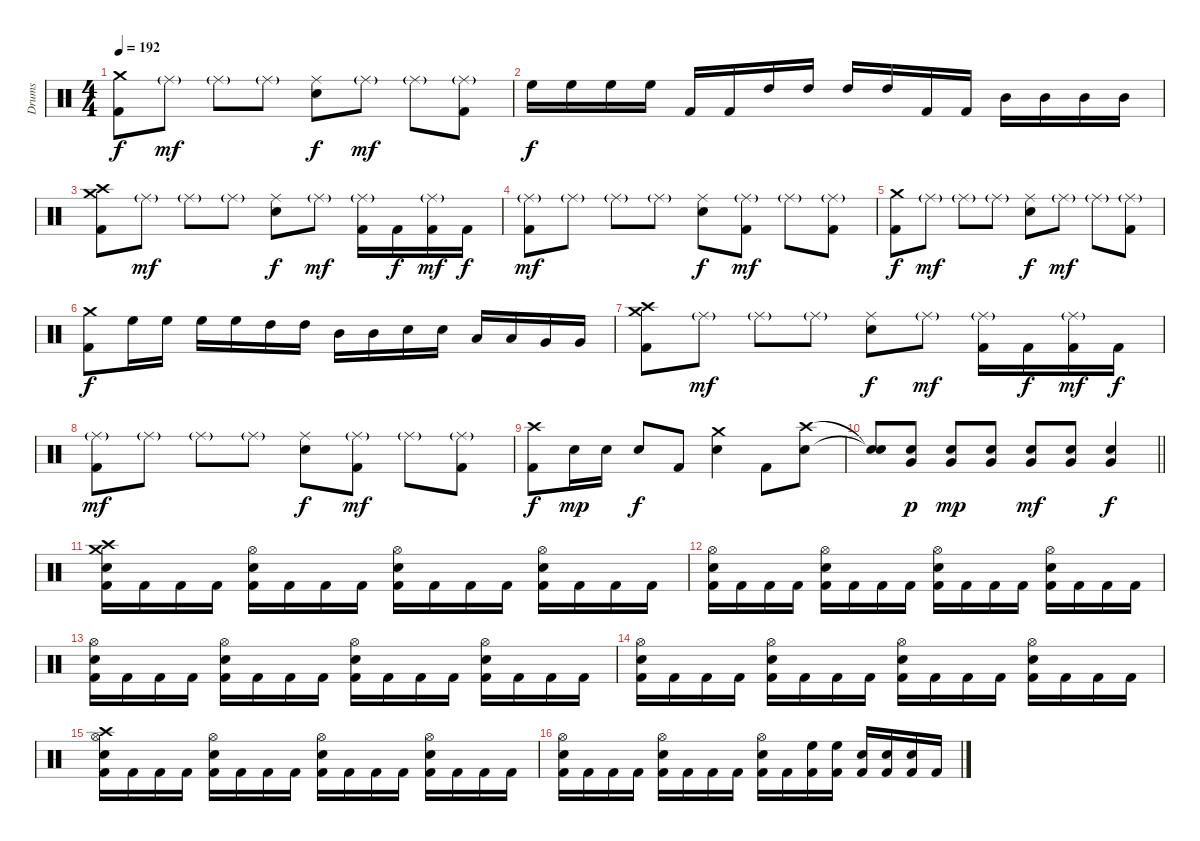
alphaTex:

\track ("Drums" "Drums") {instrument percussion}
\staff {score}
\articulation defaults
\ts (4 4)
\tempo 192
\clef neutral
\ks c
("Crash medium (hit)" "Kick (hit) 2").8{dy f} "Ride (middle)"{g}.8{dy mf} "Ride (middle)"{g}.8 "Ride (middle)"{g}.8 ("Ride (middle)" "Electric Snare (hit)").8{dy f} "Ride (middle)"{g}.8{dy mf} "Ride (middle)"{g}.8 ("Ride (middle)"{g} "Kick (hit) 2").8 |
"High Floor Tom (hit)".16{dy f} "High Floor Tom (hit)".16 "High Floor Tom (hit)".16 "High Floor Tom (hit)".16 "Kick (hit) 2".16 "Kick (hit) 2".16 "High Tom (hit)".16 "High Tom (hit)".16 "High Tom (hit)".16 "High Tom (hit)".16 "Kick (hit) 2".16 "Kick (hit) 2".16 "Mid Tom (hit)".16 "Mid Tom (hit)".16 "Mid Tom (hit)".16 "Mid Tom (hit)".16 |
("Crash high (hit)" "Crash medium (hit)" "Kick (hit) 2").8 "Ride (middle)"{g}.8{dy mf} "Ride (middle)"{g}.8 "Ride (middle)"{g}.8 ("Ride (middle)" "Electric Snare (hit)").8{dy f} "Ride (middle)"{g}.8{dy mf} ("Ride (middle)"{g} "Kick (hit) 2").16 "Kick (hit) 2".16{dy f} ("Ride (middle)"{g} "Kick (hit) 2").16{dy mf} "Kick (hit) 2".16{dy f} |
("Ride (middle)"{g} "Kick (hit) 2").8{dy mf} "Ride (middle)"{g}.8 "Ride (middle)"{g}.8 "Ride (middle)"{g}.8 ("Ride (middle)" "Electric Snare (hit)").8{dy f} ("Ride (middle)"{g} "Kick (hit) 2").8{dy mf} "Ride (middle)"{g}.8 ("Ride (middle)"{g} "Kick (hit) 2").8 |
("Crash medium (hit)" "Kick (hit) 2").8{dy f} "Ride (middle)"{g}.8{dy mf} "Ride (middle)"{g}.8 "Ride (middle)"{g}.8 ("Ride (middle)" "Electric Snare (hit)").8{dy f} "Ride (middle)"{g}.8{dy mf} "Ride (middle)"{g}.8 ("Ride (middle)"{g} "Kick (hit) 2").8 |
("Crash medium (hit)" "Kick (hit) 2").8{dy f} "High Floor Tom (hit)".16 "High Floor Tom (hit)".16 "High Floor Tom (hit)".16 "High Floor Tom (hit)".16 "High Tom (hit)".16 "High Tom (hit)".16 "Mid Tom (hit)".16 "Mid Tom (hit)".16 "Electric Snare (hit)".16 "Electric Snare (hit)".16 "Low Tom (hit)".16 "Low Tom (hit)".16 "Very Low Tom (hit)".16 "Very Low Tom (hit)".16 |
("Crash high (hit)" "Crash medium (hit)" "Kick (hit) 2").8 "Ride (middle)"{g}.8{dy mf} "Ride (middle)"{g}.8 "Ride (middle)"{g}.8 ("Ride (middle)" "Electric Snare (hit)").8{dy f} "Ride (middle)"{g}.8{dy mf} ("Ride (middle)"{g} "Kick (hit) 2").16 "Kick (hit) 2".16{dy f} ("Ride (middle)"{g} "Kick (hit) 2").16{dy mf} "Kick (hit) 2".16{dy f} |
("Ride (middle)"{g} "Kick (hit) 2").8{dy mf} "Ride (middle)"{g}.8 "Ride (middle)"{g}.8 "Ride (middle)"{g}.8 ("Ride (middle)" "Electric Snare (hit)").8{dy f} ("Ride (middle)"{g} "Kick (hit) 2").8{dy mf} "Ride (middle)"{g}.8 ("Ride (middle)"{g} "Kick (hit) 2").8 |
("Crash high (hit)" "Kick (hit) 2").8{dy f} "Electric Snare (hit)".16{dy mp} "Electric Snare (hit)".16 "Electric Snare (hit)".8{dy f} "Kick (hit) 2".8 ("Crash medium (hit)" "Electric Snare (hit)").4 "Kick (hit) 2".8 ("Crash high (hit)" "Electric Snare (hit)").8 |
\barLineRight lightlight
("Snare (hit)"{t} "Snare (hit)"{t}).8 ("Very Low Tom (hit)" "Electric Snare (hit)").8{dy p} ("Very Low Tom (hit)" "Electric Snare (hit)").8{dy mp} ("Very Low Tom (hit)" "Electric Snare (hit)").8 ("Very Low Tom (hit)" "Electric Snare (hit)").8{dy mf} ("Very Low Tom (hit)" "Electric Snare (hit)").8 ("Very Low Tom (hit)" "Electric Snare (hit)").4{dy f} |
("Crash high (hit)" "Crash medium (hit)" "Electric Snare (hit)" "Kick (hit) 2").16 "Kick (hit) 2".16 "Kick (hit) 2".16 "Kick (hit) 2".16 ("Hi-Hat (open)" "Electric Snare (hit)" "Kick (hit) 2").16 "Kick (hit) 2".16 "Kick (hit) 2".16 "Kick (hit) 2".16 ("Hi-Hat (open)" "Electric Snare (hit)" "Kick (hit) 2").16 "Kick (hit) 2".16 "Kick (hit) 2".16 "Kick (hit) 2".16 ("Hi-Hat (open)" "Electric Snare (hit)" "Kick (hit) 2").16 "Kick (hit) 2".16 "Kick (hit) 2".16 "Kick (hit) 2".16 |
("Hi-Hat (open)" "Electric Snare (hit)" "Kick (hit) 2").16 "Kick (hit) 2".16 "Kick (hit) 2".16 "Kick (hit) 2".16 ("Hi-Hat (open)" "Electric Snare (hit)" "Kick (hit) 2").16 "Kick (hit) 2".16 "Kick (hit) 2".16 "Kick (hit) 2".16 ("Hi-Hat (open)" "Electric Snare (hit)" "Kick (hit) 2").16 "Kick (hit) 2".16 "Kick (hit) 2".16 "Kick (hit) 2".16 ("Hi-Hat (open)" "Electric Snare (hit)" "Kick (hit) 2").16 "Kick (hit) 2".16 "Kick (hit) 2".16 "Kick (hit) 2".16 |
("Hi-Hat (open)" "Electric Snare (hit)" "Kick (hit) 2").16 "Kick (hit) 2".16 "Kick (hit) 2".16 "Kick (hit) 2".16 ("Hi-Hat (open)" "Electric Snare (hit)" "Kick (hit) 2").16 "Kick (hit) 2".16 "Kick (hit) 2".16 "Kick (hit) 2".16 ("Hi-Hat (open)" "Electric Snare (hit)" "Kick (hit) 2").16 "Kick (hit) 2".16 "Kick (hit) 2".16 "Kick (hit) 2".16 ("Hi-Hat (open)" "Electric Snare (hit)" "Kick (hit) 2").16 "Kick (hit) 2".16 "Kick (hit) 2".16 "Kick (hit) 2".16 |
("Hi-Hat (open)" "Electric Snare (hit)" "Kick (hit) 2").16 "Kick (hit) 2".16 "Kick (hit) 2".16 "Kick (hit) 2".16 ("Hi-Hat (open)" "Electric Snare (hit)" "Kick (hit) 2").16 "Kick (hit) 2".16 "Kick (hit) 2".16 "Kick (hit) 2".16 ("Hi-Hat (open)" "Electric Snare (hit)" "Kick (hit) 2").16 "Kick (hit) 2".16 "Kick (hit) 2".16 "Kick (hit) 2".16 ("Hi-Hat (open)" "Electric Snare (hit)" "Kick (hit) 2").16 "Kick (hit) 2".16 "Kick (hit) 2".16 "Kick (hit) 2".16 |
("Crash high (hit)" "Hi-Hat (open)" "Electric Snare (hit)" "Kick (hit) 2").16 "Kick (hit) 2".16 "Kick (hit) 2".16 "Kick (hit) 2".16 ("Hi-Hat (open)" "Electric Snare (hit)" "Kick (hit) 2").16 "Kick (hit) 2".16 "Kick (hit) 2".16 "Kick (hit) 2".16 ("Hi-Hat (open)" "Electric Snare (hit)" "Kick (hit) 2").16 "Kick (hit) 2".16 "Kick (hit) 2".16 "Kick (hit) 2".16 ("Hi-Hat (open)" "Electric Snare (hit)" "Kick (hit) 2").16 "Kick (hit) 2".16 "Kick (hit) 2".16 "Kick (hit) 2".16 |
("Hi-Hat (open)" "Electric Snare (hit)" "Kick (hit) 2").16 "Kick (hit) 2".16 "Kick (hit) 2".16 "Kick (hit) 2".16 ("Hi-Hat (open)" "Electric Snare (hit)" "Kick (hit) 2").16 "Kick (hit) 2".16 "Kick (hit) 2".16 "Kick (hit) 2".16 ("Hi-Hat (open)" "Electric Snare (hit)" "Kick (hit) 2").16 "Kick (hit) 2".16 ("High Floor Tom (hit)" "Kick (hit) 2").16 ("High Floor Tom (hit)" "Kick (hit) 2").16 ("Electric Snare (hit)" "Kick (hit) 2").16 ("Electric Snare (hit)" "Kick (hit) 2").16 ("Electric Snare (hit)" "Kick (hit) 2").16 "Kick (hit) 2".16
